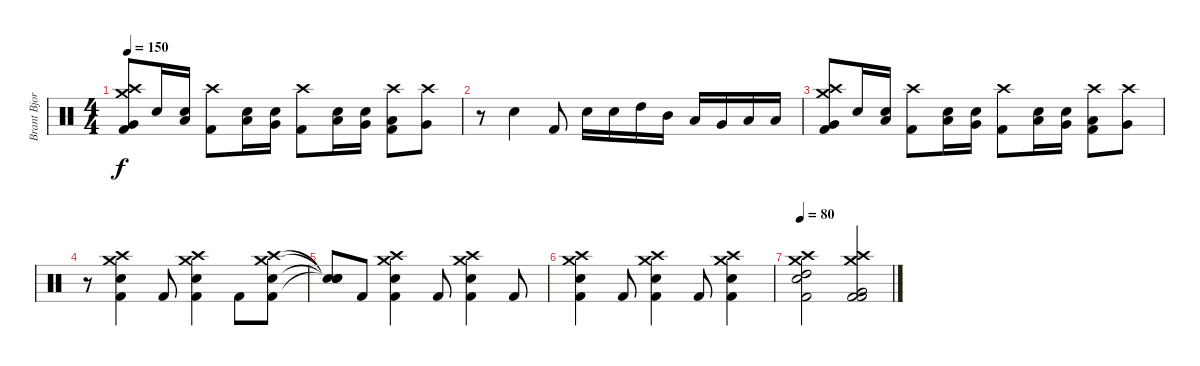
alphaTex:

\track ("Brant Bjork" "Brant Bjor") {instrument percussion}
\staff {score}
\articulation defaults
\ts (4 4)
\tempo 150
\clef neutral
\ks c
("Very Low Tom (hit)" "Crash medium (hit)" "Crash high (hit)" "Kick (hit) 2").8{dy f} "Electric Snare (hit)".16 ("Electric Snare (hit)" "Low Tom (hit)").16 ("Crash high (hit)" "Kick (hit) 2").8 ("Electric Snare (hit)" "Low Tom (hit)").16 ("Electric Snare (hit)" "Very Low Tom (hit)").16 ("Crash high (hit)" "Kick (hit) 2").8 ("Electric Snare (hit)" "Low Tom (hit)").16 ("Electric Snare (hit)" "Very Low Tom (hit)").16 ("Crash high (hit)" "Low Tom (hit)" "Kick (hit) 2").8 ("Crash high (hit)" "Very Low Tom (hit)").8 |
r.8 "Electric Snare (hit)".4 "Kick (hit) 2".8 "Electric Snare (hit)".16 "Electric Snare (hit)".16 "High Tom (hit)".16 "Mid Tom (hit)".16 "Low Tom (hit)".16 "Very Low Tom (hit)".16 "Low Floor Tom (hit)".16 "Low Floor Tom (hit)".16 |
("Very Low Tom (hit)" "Crash medium (hit)" "Crash high (hit)" "Kick (hit) 2").8 "Electric Snare (hit)".16 ("Electric Snare (hit)" "Low Tom (hit)").16 ("Crash high (hit)" "Kick (hit) 2").8 ("Electric Snare (hit)" "Low Tom (hit)").16 ("Electric Snare (hit)" "Very Low Tom (hit)").16 ("Crash high (hit)" "Kick (hit) 2").8 ("Electric Snare (hit)" "Low Tom (hit)").16 ("Electric Snare (hit)" "Very Low Tom (hit)").16 ("Crash high (hit)" "Low Tom (hit)" "Kick (hit) 2").8 ("Crash high (hit)" "Very Low Tom (hit)").8 |
r.8 ("Crash medium (hit)" "Crash high (hit)" "Electric Snare (hit)" "Kick (hit) 2").4 "Kick (hit) 2".8 ("Crash medium (hit)" "Crash high (hit)" "Electric Snare (hit)" "Kick (hit) 2").4 "Kick (hit) 2".8 ("Crash medium (hit)" "Crash high (hit)" "Electric Snare (hit)" "Kick (hit) 2").8 |
("Snare (hit)"{t} "Snare (hit)"{t} "Snare (hit)"{t} "Snare (hit)"{t}).8 "Kick (hit) 2".8 ("Crash medium (hit)" "Crash high (hit)" "Electric Snare (hit)" "Kick (hit) 2").4 "Kick (hit) 2".8 ("Crash medium (hit)" "Crash high (hit)" "Electric Snare (hit)" "Kick (hit) 2").4 "Kick (hit) 2".8 |
("Crash medium (hit)" "Crash high (hit)" "Electric Snare (hit)" "Kick (hit) 2").4 "Kick (hit) 2".8 ("Crash medium (hit)" "Crash high (hit)" "Electric Snare (hit)" "Kick (hit) 2").4 "Kick (hit) 2".8 ("Crash medium (hit)" "Crash high (hit)" "Electric Snare (hit)" "Kick (hit) 2").4 |
\tempo 80
("Crash medium (hit)" "Crash high (hit)" "Kick (hit) 2" "Electric Snare (hit)" "High Tom (hit)").2 ("Crash medium (hit)" "Crash high (hit)" "Kick (hit) 2" "Kick (hit) 2" "Very Low Tom (hit)").2
